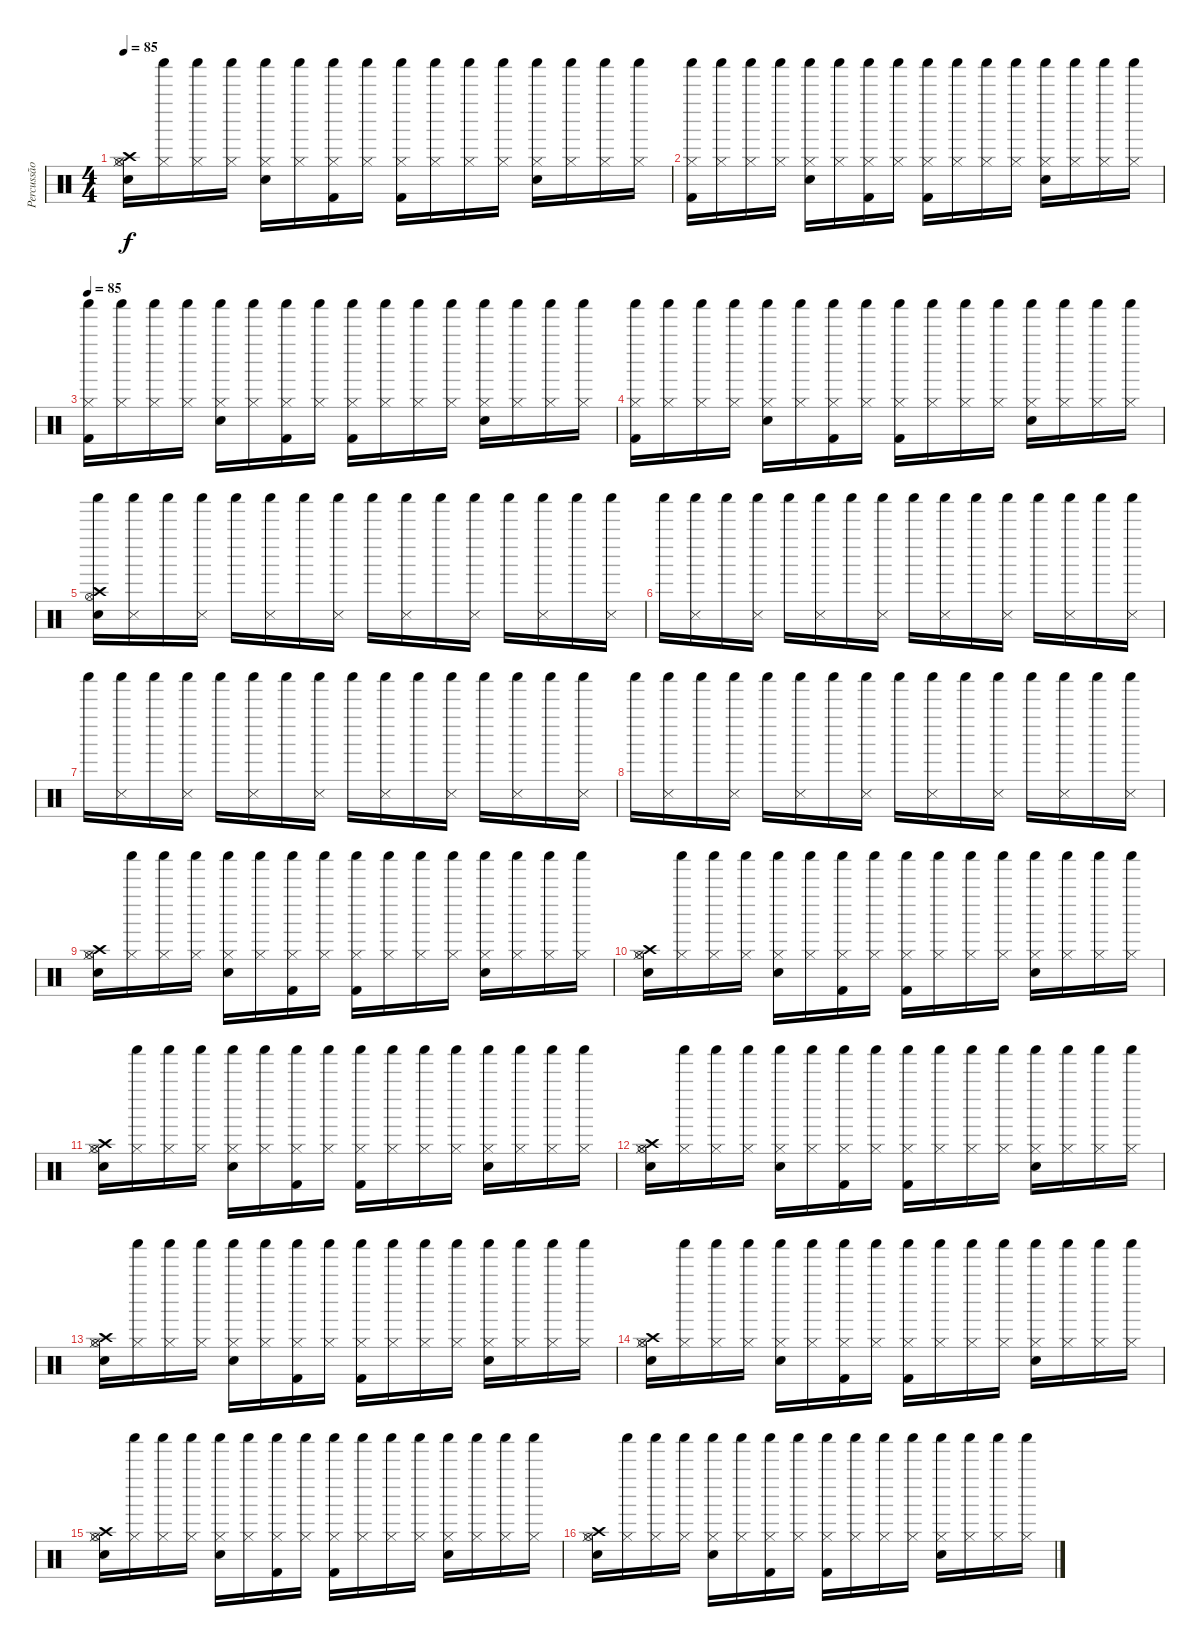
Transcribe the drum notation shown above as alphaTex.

\track ("Percussão" "Percussão") {instrument percussion}
\staff {score}
\articulation defaults
\ts (4 4)
\tempo 85
\clef neutral
\ks c
("Hi-Hat (open)" "Crash high (hit)" "Hi-Hat (closed)" "Snare (hit) 2").16{dy f} ("Shaker (hit)" "Hi-Hat (closed)").16 ("Shaker (hit)" "Hi-Hat (closed)").16 ("Shaker (hit)" "Hi-Hat (closed)").16 ("Shaker (hit)" "Hi-Hat (closed)" "Snare (hit) 2").16 ("Shaker (hit)" "Hi-Hat (closed)").16 ("Shaker (hit)" "Hi-Hat (closed)" "Kick (hit) 2").16 ("Shaker (hit)" "Hi-Hat (closed)").16 ("Shaker (hit)" "Hi-Hat (closed)" "Kick (hit) 2").16 ("Shaker (hit)" "Hi-Hat (closed)").16 ("Shaker (hit)" "Hi-Hat (closed)").16 ("Shaker (hit)" "Hi-Hat (closed)").16 ("Shaker (hit)" "Hi-Hat (closed)" "Snare (hit) 2").16 ("Shaker (hit)" "Hi-Hat (closed)").16 ("Shaker (hit)" "Hi-Hat (closed)").16 ("Shaker (hit)" "Hi-Hat (closed)").16 |
("Shaker (hit)" "Hi-Hat (closed)" "Kick (hit) 2").16 ("Shaker (hit)" "Hi-Hat (closed)").16 ("Shaker (hit)" "Hi-Hat (closed)").16 ("Shaker (hit)" "Hi-Hat (closed)").16 ("Shaker (hit)" "Hi-Hat (closed)" "Snare (hit) 2").16 ("Shaker (hit)" "Hi-Hat (closed)").16 ("Shaker (hit)" "Hi-Hat (closed)" "Kick (hit) 2").16 ("Shaker (hit)" "Hi-Hat (closed)").16 ("Shaker (hit)" "Hi-Hat (closed)" "Kick (hit) 2").16 ("Shaker (hit)" "Hi-Hat (closed)").16 ("Shaker (hit)" "Hi-Hat (closed)").16 ("Shaker (hit)" "Hi-Hat (closed)").16 ("Shaker (hit)" "Hi-Hat (closed)" "Snare (hit) 2").16 ("Shaker (hit)" "Hi-Hat (closed)").16 ("Shaker (hit)" "Hi-Hat (closed)").16 ("Shaker (hit)" "Hi-Hat (closed)").16 |
\tempo 85
("Shaker (hit)" "Hi-Hat (closed)" "Kick (hit) 2").16 ("Shaker (hit)" "Hi-Hat (closed)").16 ("Shaker (hit)" "Hi-Hat (closed)").16 ("Shaker (hit)" "Hi-Hat (closed)").16 ("Shaker (hit)" "Hi-Hat (closed)" "Snare (hit) 2").16 ("Shaker (hit)" "Hi-Hat (closed)").16 ("Shaker (hit)" "Hi-Hat (closed)" "Kick (hit) 2").16 ("Shaker (hit)" "Hi-Hat (closed)").16 ("Shaker (hit)" "Hi-Hat (closed)" "Kick (hit) 2").16 ("Shaker (hit)" "Hi-Hat (closed)").16 ("Shaker (hit)" "Hi-Hat (closed)").16 ("Shaker (hit)" "Hi-Hat (closed)").16 ("Shaker (hit)" "Hi-Hat (closed)" "Snare (hit) 2").16 ("Shaker (hit)" "Hi-Hat (closed)").16 ("Shaker (hit)" "Hi-Hat (closed)").16 ("Shaker (hit)" "Hi-Hat (closed)").16 |
("Shaker (hit)" "Hi-Hat (closed)" "Kick (hit) 2").16 ("Shaker (hit)" "Hi-Hat (closed)").16 ("Shaker (hit)" "Hi-Hat (closed)").16 ("Shaker (hit)" "Hi-Hat (closed)").16 ("Shaker (hit)" "Hi-Hat (closed)" "Snare (hit) 2").16 ("Shaker (hit)" "Hi-Hat (closed)").16 ("Shaker (hit)" "Hi-Hat (closed)" "Kick (hit) 2").16 ("Shaker (hit)" "Hi-Hat (closed)").16 ("Shaker (hit)" "Hi-Hat (closed)" "Kick (hit) 2").16 ("Shaker (hit)" "Hi-Hat (closed)").16 ("Shaker (hit)" "Hi-Hat (closed)").16 ("Shaker (hit)" "Hi-Hat (closed)").16 ("Shaker (hit)" "Hi-Hat (closed)" "Snare (hit) 2").16 ("Shaker (hit)" "Hi-Hat (closed)").16 ("Shaker (hit)" "Hi-Hat (closed)").16 ("Shaker (hit)" "Hi-Hat (closed)").16 |
("Crash high (hit)" "Hi-Hat (open)" "Snare (hit) 2" "Shaker (hit)").16 ("Shaker (hit)" "Snare (side stick) 3").16 "Shaker (hit)".16 ("Shaker (hit)" "Snare (side stick) 3").16 "Shaker (hit)".16 ("Shaker (hit)" "Snare (side stick) 3").16 "Shaker (hit)".16 ("Shaker (hit)" "Snare (side stick) 3").16 "Shaker (hit)".16 ("Shaker (hit)" "Snare (side stick) 3").16 "Shaker (hit)".16 ("Shaker (hit)" "Snare (side stick) 3").16 "Shaker (hit)".16 ("Shaker (hit)" "Snare (side stick) 3").16 "Shaker (hit)".16 ("Shaker (hit)" "Snare (side stick) 3").16 |
"Shaker (hit)".16 ("Shaker (hit)" "Snare (side stick) 3").16 "Shaker (hit)".16 ("Shaker (hit)" "Snare (side stick) 3").16 "Shaker (hit)".16 ("Shaker (hit)" "Snare (side stick) 3").16 "Shaker (hit)".16 ("Shaker (hit)" "Snare (side stick) 3").16 "Shaker (hit)".16 ("Shaker (hit)" "Snare (side stick) 3").16 "Shaker (hit)".16 ("Shaker (hit)" "Snare (side stick) 3").16 "Shaker (hit)".16 ("Shaker (hit)" "Snare (side stick) 3").16 "Shaker (hit)".16 ("Shaker (hit)" "Snare (side stick) 3").16 |
"Shaker (hit)".16 ("Shaker (hit)" "Snare (side stick) 3").16 "Shaker (hit)".16 ("Shaker (hit)" "Snare (side stick) 3").16 "Shaker (hit)".16 ("Shaker (hit)" "Snare (side stick) 3").16 "Shaker (hit)".16 ("Shaker (hit)" "Snare (side stick) 3").16 "Shaker (hit)".16 ("Shaker (hit)" "Snare (side stick) 3").16 "Shaker (hit)".16 ("Shaker (hit)" "Snare (side stick) 3").16 "Shaker (hit)".16 ("Shaker (hit)" "Snare (side stick) 3").16 "Shaker (hit)".16 ("Shaker (hit)" "Snare (side stick) 3").16 |
"Shaker (hit)".16 ("Shaker (hit)" "Snare (side stick) 3").16 "Shaker (hit)".16 ("Shaker (hit)" "Snare (side stick) 3").16 "Shaker (hit)".16 ("Shaker (hit)" "Snare (side stick) 3").16 "Shaker (hit)".16 ("Shaker (hit)" "Snare (side stick) 3").16 "Shaker (hit)".16 ("Shaker (hit)" "Snare (side stick) 3").16 "Shaker (hit)".16 ("Shaker (hit)" "Snare (side stick) 3").16 "Shaker (hit)".16 ("Shaker (hit)" "Snare (side stick) 3").16 "Shaker (hit)".16 ("Shaker (hit)" "Snare (side stick) 3").16 |
("Hi-Hat (open)" "Crash high (hit)" "Hi-Hat (closed)" "Snare (hit) 2").16 ("Shaker (hit)" "Hi-Hat (closed)").16 ("Shaker (hit)" "Hi-Hat (closed)").16 ("Shaker (hit)" "Hi-Hat (closed)").16 ("Shaker (hit)" "Hi-Hat (closed)" "Snare (hit) 2").16 ("Shaker (hit)" "Hi-Hat (closed)").16 ("Shaker (hit)" "Hi-Hat (closed)" "Kick (hit) 2").16 ("Shaker (hit)" "Hi-Hat (closed)").16 ("Shaker (hit)" "Hi-Hat (closed)" "Kick (hit) 2").16 ("Shaker (hit)" "Hi-Hat (closed)").16 ("Shaker (hit)" "Hi-Hat (closed)").16 ("Shaker (hit)" "Hi-Hat (closed)").16 ("Shaker (hit)" "Hi-Hat (closed)" "Snare (hit) 2").16 ("Shaker (hit)" "Hi-Hat (closed)").16 ("Shaker (hit)" "Hi-Hat (closed)").16 ("Shaker (hit)" "Hi-Hat (closed)").16 |
("Hi-Hat (open)" "Crash high (hit)" "Hi-Hat (closed)" "Snare (hit) 2").16 ("Shaker (hit)" "Hi-Hat (closed)").16 ("Shaker (hit)" "Hi-Hat (closed)").16 ("Shaker (hit)" "Hi-Hat (closed)").16 ("Shaker (hit)" "Hi-Hat (closed)" "Snare (hit) 2").16 ("Shaker (hit)" "Hi-Hat (closed)").16 ("Shaker (hit)" "Hi-Hat (closed)" "Kick (hit) 2").16 ("Shaker (hit)" "Hi-Hat (closed)").16 ("Shaker (hit)" "Hi-Hat (closed)" "Kick (hit) 2").16 ("Shaker (hit)" "Hi-Hat (closed)").16 ("Shaker (hit)" "Hi-Hat (closed)").16 ("Shaker (hit)" "Hi-Hat (closed)").16 ("Shaker (hit)" "Hi-Hat (closed)" "Snare (hit) 2").16 ("Shaker (hit)" "Hi-Hat (closed)").16 ("Shaker (hit)" "Hi-Hat (closed)").16 ("Shaker (hit)" "Hi-Hat (closed)").16 |
("Hi-Hat (open)" "Crash high (hit)" "Hi-Hat (closed)" "Snare (hit) 2").16 ("Shaker (hit)" "Hi-Hat (closed)").16 ("Shaker (hit)" "Hi-Hat (closed)").16 ("Shaker (hit)" "Hi-Hat (closed)").16 ("Shaker (hit)" "Hi-Hat (closed)" "Snare (hit) 2").16 ("Shaker (hit)" "Hi-Hat (closed)").16 ("Shaker (hit)" "Hi-Hat (closed)" "Kick (hit) 2").16 ("Shaker (hit)" "Hi-Hat (closed)").16 ("Shaker (hit)" "Hi-Hat (closed)" "Kick (hit) 2").16 ("Shaker (hit)" "Hi-Hat (closed)").16 ("Shaker (hit)" "Hi-Hat (closed)").16 ("Shaker (hit)" "Hi-Hat (closed)").16 ("Shaker (hit)" "Hi-Hat (closed)" "Snare (hit) 2").16 ("Shaker (hit)" "Hi-Hat (closed)").16 ("Shaker (hit)" "Hi-Hat (closed)").16 ("Shaker (hit)" "Hi-Hat (closed)").16 |
("Hi-Hat (open)" "Crash high (hit)" "Hi-Hat (closed)" "Snare (hit) 2").16 ("Shaker (hit)" "Hi-Hat (closed)").16 ("Shaker (hit)" "Hi-Hat (closed)").16 ("Shaker (hit)" "Hi-Hat (closed)").16 ("Shaker (hit)" "Hi-Hat (closed)" "Snare (hit) 2").16 ("Shaker (hit)" "Hi-Hat (closed)").16 ("Shaker (hit)" "Hi-Hat (closed)" "Kick (hit) 2").16 ("Shaker (hit)" "Hi-Hat (closed)").16 ("Shaker (hit)" "Hi-Hat (closed)" "Kick (hit) 2").16 ("Shaker (hit)" "Hi-Hat (closed)").16 ("Shaker (hit)" "Hi-Hat (closed)").16 ("Shaker (hit)" "Hi-Hat (closed)").16 ("Shaker (hit)" "Hi-Hat (closed)" "Snare (hit) 2").16 ("Shaker (hit)" "Hi-Hat (closed)").16 ("Shaker (hit)" "Hi-Hat (closed)").16 ("Shaker (hit)" "Hi-Hat (closed)").16 |
("Hi-Hat (open)" "Crash high (hit)" "Hi-Hat (closed)" "Snare (hit) 2").16 ("Shaker (hit)" "Hi-Hat (closed)").16 ("Shaker (hit)" "Hi-Hat (closed)").16 ("Shaker (hit)" "Hi-Hat (closed)").16 ("Shaker (hit)" "Hi-Hat (closed)" "Snare (hit) 2").16 ("Shaker (hit)" "Hi-Hat (closed)").16 ("Shaker (hit)" "Hi-Hat (closed)" "Kick (hit) 2").16 ("Shaker (hit)" "Hi-Hat (closed)").16 ("Shaker (hit)" "Hi-Hat (closed)" "Kick (hit) 2").16 ("Shaker (hit)" "Hi-Hat (closed)").16 ("Shaker (hit)" "Hi-Hat (closed)").16 ("Shaker (hit)" "Hi-Hat (closed)").16 ("Shaker (hit)" "Hi-Hat (closed)" "Snare (hit) 2").16 ("Shaker (hit)" "Hi-Hat (closed)").16 ("Shaker (hit)" "Hi-Hat (closed)").16 ("Shaker (hit)" "Hi-Hat (closed)").16 |
("Hi-Hat (open)" "Crash high (hit)" "Hi-Hat (closed)" "Snare (hit) 2").16 ("Shaker (hit)" "Hi-Hat (closed)").16 ("Shaker (hit)" "Hi-Hat (closed)").16 ("Shaker (hit)" "Hi-Hat (closed)").16 ("Shaker (hit)" "Hi-Hat (closed)" "Snare (hit) 2").16 ("Shaker (hit)" "Hi-Hat (closed)").16 ("Shaker (hit)" "Hi-Hat (closed)" "Kick (hit) 2").16 ("Shaker (hit)" "Hi-Hat (closed)").16 ("Shaker (hit)" "Hi-Hat (closed)" "Kick (hit) 2").16 ("Shaker (hit)" "Hi-Hat (closed)").16 ("Shaker (hit)" "Hi-Hat (closed)").16 ("Shaker (hit)" "Hi-Hat (closed)").16 ("Shaker (hit)" "Hi-Hat (closed)" "Snare (hit) 2").16 ("Shaker (hit)" "Hi-Hat (closed)").16 ("Shaker (hit)" "Hi-Hat (closed)").16 ("Shaker (hit)" "Hi-Hat (closed)").16 |
("Hi-Hat (open)" "Crash high (hit)" "Hi-Hat (closed)" "Snare (hit) 2").16 ("Shaker (hit)" "Hi-Hat (closed)").16 ("Shaker (hit)" "Hi-Hat (closed)").16 ("Shaker (hit)" "Hi-Hat (closed)").16 ("Shaker (hit)" "Hi-Hat (closed)" "Snare (hit) 2").16 ("Shaker (hit)" "Hi-Hat (closed)").16 ("Shaker (hit)" "Hi-Hat (closed)" "Kick (hit) 2").16 ("Shaker (hit)" "Hi-Hat (closed)").16 ("Shaker (hit)" "Hi-Hat (closed)" "Kick (hit) 2").16 ("Shaker (hit)" "Hi-Hat (closed)").16 ("Shaker (hit)" "Hi-Hat (closed)").16 ("Shaker (hit)" "Hi-Hat (closed)").16 ("Shaker (hit)" "Hi-Hat (closed)" "Snare (hit) 2").16 ("Shaker (hit)" "Hi-Hat (closed)").16 ("Shaker (hit)" "Hi-Hat (closed)").16 ("Shaker (hit)" "Hi-Hat (closed)").16 |
("Hi-Hat (open)" "Crash high (hit)" "Hi-Hat (closed)" "Snare (hit) 2").16 ("Shaker (hit)" "Hi-Hat (closed)").16 ("Shaker (hit)" "Hi-Hat (closed)").16 ("Shaker (hit)" "Hi-Hat (closed)").16 ("Shaker (hit)" "Hi-Hat (closed)" "Snare (hit) 2").16 ("Shaker (hit)" "Hi-Hat (closed)").16 ("Shaker (hit)" "Hi-Hat (closed)" "Kick (hit) 2").16 ("Shaker (hit)" "Hi-Hat (closed)").16 ("Shaker (hit)" "Hi-Hat (closed)" "Kick (hit) 2").16 ("Shaker (hit)" "Hi-Hat (closed)").16 ("Shaker (hit)" "Hi-Hat (closed)").16 ("Shaker (hit)" "Hi-Hat (closed)").16 ("Shaker (hit)" "Hi-Hat (closed)" "Snare (hit) 2").16 ("Shaker (hit)" "Hi-Hat (closed)").16 ("Shaker (hit)" "Hi-Hat (closed)").16 ("Shaker (hit)" "Hi-Hat (closed)").16
